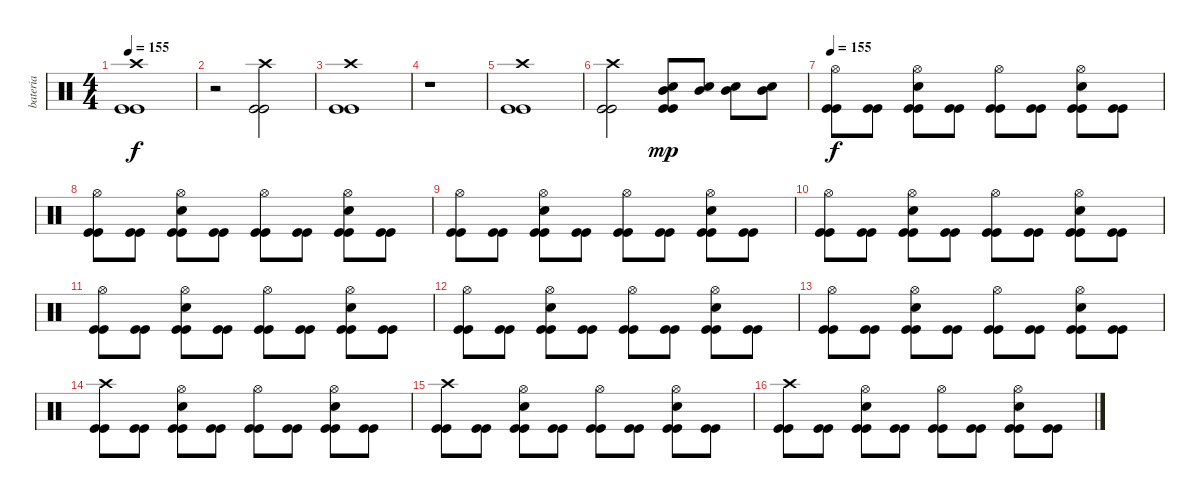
\track ("bateria" "bateria") {instrument percussion}
\staff {score}
\articulation defaults
\ts (4 4)
\tempo 155
\clef neutral
\ks c
("Crash high (hit)" "Kick (hit)" "Kick (hit)").1{dy f} |
r.2 ("Crash high (hit)" "Kick (hit)" "Kick (hit)").2 |
("Crash high (hit)" "Kick (hit)" "Kick (hit)").1 |
r.1 |
("Crash high (hit)" "Kick (hit)" "Kick (hit)").1 |
("Crash high (hit)" "Kick (hit)" "Kick (hit)").2 ("Mid Tom (hit)" "Snare (hit) 2" "Kick (hit)" "Kick (hit)").8{dy mp} ("Mid Tom (hit)" "Snare (hit) 2").8 ("Mid Tom (hit)" "Snare (hit) 2").8 ("Mid Tom (hit)" "Snare (hit) 2").8 |
\tempo 155
("Hi-Hat (open)" "Kick (hit)" "Kick (hit)").8{dy f} ("Kick (hit)" "Kick (hit)").8 ("Hi-Hat (open)" "Snare (hit) 2" "Kick (hit)" "Kick (hit)").8 ("Kick (hit)" "Kick (hit)").8 ("Hi-Hat (open)" "Kick (hit)" "Kick (hit)").8 ("Kick (hit)" "Kick (hit)").8 ("Hi-Hat (open)" "Snare (hit) 2" "Kick (hit)" "Kick (hit)").8 ("Kick (hit)" "Kick (hit)").8 |
("Hi-Hat (open)" "Kick (hit)" "Kick (hit)").8 ("Kick (hit)" "Kick (hit)").8 ("Hi-Hat (open)" "Snare (hit) 2" "Kick (hit)" "Kick (hit)").8 ("Kick (hit)" "Kick (hit)").8 ("Hi-Hat (open)" "Kick (hit)" "Kick (hit)").8 ("Kick (hit)" "Kick (hit)").8 ("Hi-Hat (open)" "Snare (hit) 2" "Kick (hit)" "Kick (hit)").8 ("Kick (hit)" "Kick (hit)").8 |
("Hi-Hat (open)" "Kick (hit)" "Kick (hit)").8 ("Kick (hit)" "Kick (hit)").8 ("Hi-Hat (open)" "Snare (hit) 2" "Kick (hit)" "Kick (hit)").8 ("Kick (hit)" "Kick (hit)").8 ("Hi-Hat (open)" "Kick (hit)" "Kick (hit)").8 ("Kick (hit)" "Kick (hit)").8 ("Hi-Hat (open)" "Snare (hit) 2" "Kick (hit)" "Kick (hit)").8 ("Kick (hit)" "Kick (hit)").8 |
("Hi-Hat (open)" "Kick (hit)" "Kick (hit)").8 ("Kick (hit)" "Kick (hit)").8 ("Hi-Hat (open)" "Snare (hit) 2" "Kick (hit)" "Kick (hit)").8 ("Kick (hit)" "Kick (hit)").8 ("Hi-Hat (open)" "Kick (hit)" "Kick (hit)").8 ("Kick (hit)" "Kick (hit)").8 ("Hi-Hat (open)" "Snare (hit) 2" "Kick (hit)" "Kick (hit)").8 ("Kick (hit)" "Kick (hit)").8 |
("Hi-Hat (open)" "Kick (hit)" "Kick (hit)").8 ("Kick (hit)" "Kick (hit)").8 ("Hi-Hat (open)" "Snare (hit) 2" "Kick (hit)" "Kick (hit)").8 ("Kick (hit)" "Kick (hit)").8 ("Hi-Hat (open)" "Kick (hit)" "Kick (hit)").8 ("Kick (hit)" "Kick (hit)").8 ("Hi-Hat (open)" "Snare (hit) 2" "Kick (hit)" "Kick (hit)").8 ("Kick (hit)" "Kick (hit)").8 |
("Hi-Hat (open)" "Kick (hit)" "Kick (hit)").8 ("Kick (hit)" "Kick (hit)").8 ("Hi-Hat (open)" "Snare (hit) 2" "Kick (hit)" "Kick (hit)").8 ("Kick (hit)" "Kick (hit)").8 ("Hi-Hat (open)" "Kick (hit)" "Kick (hit)").8 ("Kick (hit)" "Kick (hit)").8 ("Hi-Hat (open)" "Snare (hit) 2" "Kick (hit)" "Kick (hit)").8 ("Kick (hit)" "Kick (hit)").8 |
("Hi-Hat (open)" "Kick (hit)" "Kick (hit)").8 ("Kick (hit)" "Kick (hit)").8 ("Hi-Hat (open)" "Snare (hit) 2" "Kick (hit)" "Kick (hit)").8 ("Kick (hit)" "Kick (hit)").8 ("Hi-Hat (open)" "Kick (hit)" "Kick (hit)").8 ("Kick (hit)" "Kick (hit)").8 ("Hi-Hat (open)" "Snare (hit) 2" "Kick (hit)" "Kick (hit)").8 ("Kick (hit)" "Kick (hit)").8 |
("Crash high (hit)" "Kick (hit)" "Kick (hit)").8 ("Kick (hit)" "Kick (hit)").8 ("Hi-Hat (open)" "Snare (hit) 2" "Kick (hit)" "Kick (hit)").8 ("Kick (hit)" "Kick (hit)").8 ("Hi-Hat (open)" "Kick (hit)" "Kick (hit)").8 ("Kick (hit)" "Kick (hit)").8 ("Hi-Hat (open)" "Snare (hit) 2" "Kick (hit)" "Kick (hit)").8 ("Kick (hit)" "Kick (hit)").8 |
("Crash high (hit)" "Kick (hit)" "Kick (hit)").8 ("Kick (hit)" "Kick (hit)").8 ("Hi-Hat (open)" "Snare (hit) 2" "Kick (hit)" "Kick (hit)").8 ("Kick (hit)" "Kick (hit)").8 ("Hi-Hat (open)" "Kick (hit)" "Kick (hit)").8 ("Kick (hit)" "Kick (hit)").8 ("Hi-Hat (open)" "Snare (hit) 2" "Kick (hit)" "Kick (hit)").8 ("Kick (hit)" "Kick (hit)").8 |
("Crash high (hit)" "Kick (hit)" "Kick (hit)").8 ("Kick (hit)" "Kick (hit)").8 ("Hi-Hat (open)" "Snare (hit) 2" "Kick (hit)" "Kick (hit)").8 ("Kick (hit)" "Kick (hit)").8 ("Hi-Hat (open)" "Kick (hit)" "Kick (hit)").8 ("Kick (hit)" "Kick (hit)").8 ("Hi-Hat (open)" "Snare (hit) 2" "Kick (hit)" "Kick (hit)").8 ("Kick (hit)" "Kick (hit)").8
